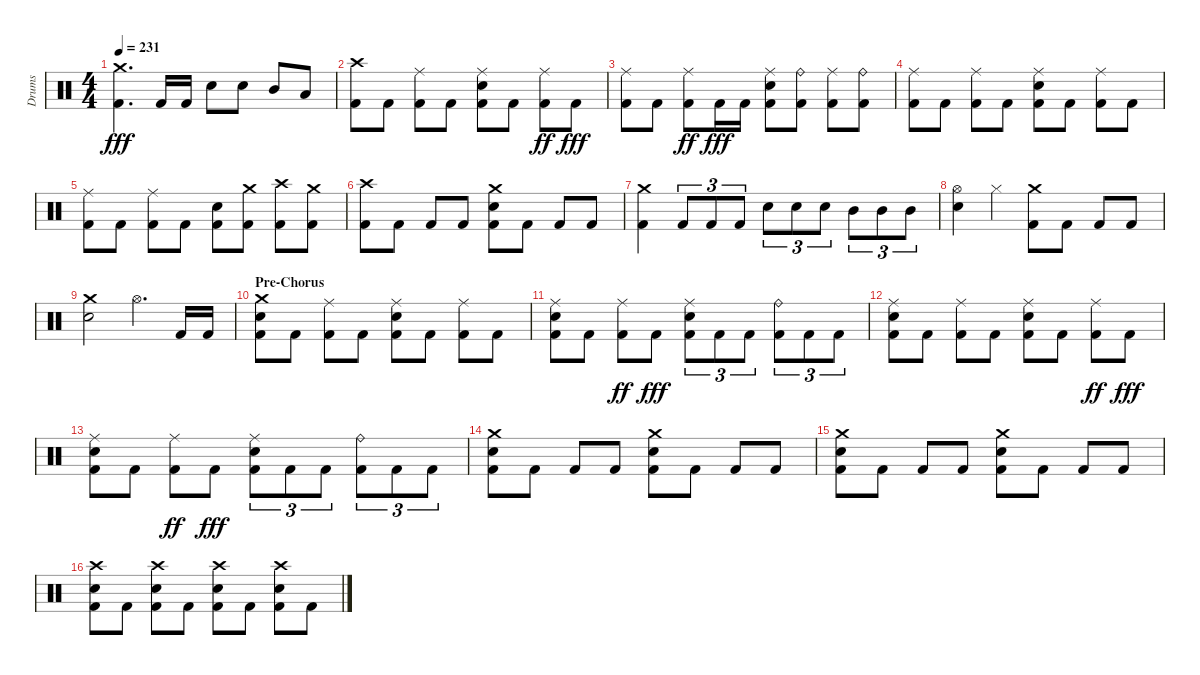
\track ("Drums" "Drums") {instrument percussion}
\staff {score}
\articulation defaults
\ts (4 4)
\tempo 231
\clef neutral
\ks aminor
("Crash medium (hit)" "Kick (hit) 2").4{d dy fff} "Kick (hit) 2".16 "Kick (hit) 2".16 "Snare (hit) 2".8 "Snare (hit) 2".8 "Mid Tom (hit)".8 "Low Tom (hit)".8 |
("Kick (hit) 2" "Crash high (hit)").8 "Kick (hit) 2".8 ("Kick (hit) 2" "Ride (middle)").8 "Kick (hit) 2".8 ("Kick (hit) 2" "Snare (hit) 2" "Ride (middle)").8 "Kick (hit) 2".8 ("Ride (middle)" "Kick (hit) 2").8{dy ff} "Kick (hit) 2".8{dy fff} |
("Kick (hit) 2" "Ride (middle)").8 "Kick (hit) 2".8 ("Ride (middle)" "Kick (hit) 2").8{dy ff} "Kick (hit) 2".16{dy fff} "Kick (hit) 2".16 ("Ride (middle)" "Kick (hit) 2" "Snare (hit) 2").8 ("Kick (hit) 2" "Ride (bell)").8 ("Kick (hit) 2" "Ride (middle)").8 ("Ride (bell)" "Kick (hit) 2").8 |
("Kick (hit) 2" "Ride (middle)").8 "Kick (hit) 2".8 ("Kick (hit) 2" "Ride (middle)").8 "Kick (hit) 2".8 ("Ride (middle)" "Snare (hit) 2" "Kick (hit) 2").8 "Kick (hit) 2".8 ("Ride (middle)" "Kick (hit) 2").8 "Kick (hit) 2".8 |
("Kick (hit) 2" "Ride (middle)").8 "Kick (hit) 2".8 ("Kick (hit) 2" "Ride (middle)").8 "Kick (hit) 2".8 ("Snare (hit) 2" "Kick (hit) 2").8 ("Kick (hit) 2" "Crash medium (hit)").8 ("Crash high (hit)" "Kick (hit) 2").8 ("Kick (hit) 2" "Crash medium (hit)").8 |
("Kick (hit) 2" "Crash high (hit)").8 "Kick (hit) 2".8 "Kick (hit) 2".8 "Kick (hit) 2".8 ("Kick (hit) 2" "Snare (hit) 2" "Crash medium (hit)").8 "Kick (hit) 2".8 "Kick (hit) 2".8 "Kick (hit) 2".8 |
("Kick (hit) 2" "Crash medium (hit)").4 "Kick (hit) 2".8{tu (3 2)} "Kick (hit) 2".8{tu (3 2)} "Kick (hit) 2".8{tu (3 2)} "Snare (hit) 2".8{tu (3 2)} "Snare (hit) 2".8{tu (3 2)} "Snare (hit) 2".8{tu (3 2)} "Mid Tom (hit)".8{tu (3 2)} "Mid Tom (hit)".8{tu (3 2)} "Mid Tom (hit)".8{tu (3 2)} |
("Hi-Hat (open)" "Snare (hit) 2").4 "Hi-Hat (closed)".4 ("Kick (hit) 2" "Crash medium (hit)").8 "Kick (hit) 2".8 "Kick (hit) 2".8 "Kick (hit) 2".8 |
("Crash medium (hit)" "Snare (hit) 2").2 "Hi-Hat (open)".4{d} "Kick (hit) 2".16 "Kick (hit) 2".16 |
\section ("" "Pre-Chorus")
("Kick (hit) 2" "Snare (hit) 2" "Crash medium (hit)").8 "Kick (hit) 2".8 ("Kick (hit) 2" "Ride (middle)").8 "Kick (hit) 2".8 ("Snare (hit) 2" "Kick (hit) 2" "Ride (middle)").8 "Kick (hit) 2".8 ("Kick (hit) 2" "Ride (middle)").8 "Kick (hit) 2".8 |
("Kick (hit) 2" "Ride (middle)" "Snare (hit) 2").8 "Kick (hit) 2".8 ("Ride (middle)" "Kick (hit) 2").8{dy ff} "Kick (hit) 2".8{dy fff} ("Snare (hit) 2" "Ride (middle)" "Kick (hit) 2").8{tu (3 2)} "Kick (hit) 2".8{tu (3 2)} "Kick (hit) 2".8{tu (3 2)} ("Ride (bell)" "Kick (hit) 2").8{tu (3 2)} "Kick (hit) 2".8{tu (3 2)} "Kick (hit) 2".8{tu (3 2)} |
("Kick (hit) 2" "Snare (hit) 2" "Ride (middle)").8 "Kick (hit) 2".8 ("Kick (hit) 2" "Ride (middle)").8 "Kick (hit) 2".8 ("Kick (hit) 2" "Ride (middle)" "Snare (hit) 2").8 "Kick (hit) 2".8 ("Ride (middle)" "Kick (hit) 2").8{dy ff} "Kick (hit) 2".8{dy fff} |
("Kick (hit) 2" "Ride (middle)" "Snare (hit) 2").8 "Kick (hit) 2".8 ("Ride (middle)" "Kick (hit) 2").8{dy ff} "Kick (hit) 2".8{dy fff} ("Snare (hit) 2" "Ride (middle)" "Kick (hit) 2").8{tu (3 2)} "Kick (hit) 2".8{tu (3 2)} "Kick (hit) 2".8{tu (3 2)} ("Ride (bell)" "Kick (hit) 2").8{tu (3 2)} "Kick (hit) 2".8{tu (3 2)} "Kick (hit) 2".8{tu (3 2)} |
("Crash medium (hit)" "Snare (hit) 2" "Kick (hit) 2").8 "Kick (hit) 2".8 "Kick (hit) 2".8 "Kick (hit) 2".8 ("Crash medium (hit)" "Kick (hit) 2" "Snare (hit) 2").8 "Kick (hit) 2".8 "Kick (hit) 2".8 "Kick (hit) 2".8 |
("Kick (hit) 2" "Crash medium (hit)" "Snare (hit) 2").8 "Kick (hit) 2".8 "Kick (hit) 2".8 "Kick (hit) 2".8 ("Crash medium (hit)" "Kick (hit) 2" "Snare (hit) 2").8 "Kick (hit) 2".8 "Kick (hit) 2".8 "Kick (hit) 2".8 |
("Kick (hit) 2" "Snare (hit) 2" "Crash high (hit)").8 "Kick (hit) 2".8 ("Kick (hit) 2" "Snare (hit) 2" "Crash high (hit)").8 "Kick (hit) 2".8 ("Kick (hit) 2" "Snare (hit) 2" "Crash high (hit)").8 "Kick (hit) 2".8 ("Snare (hit) 2" "Kick (hit) 2" "Crash high (hit)").8 "Kick (hit) 2".8
